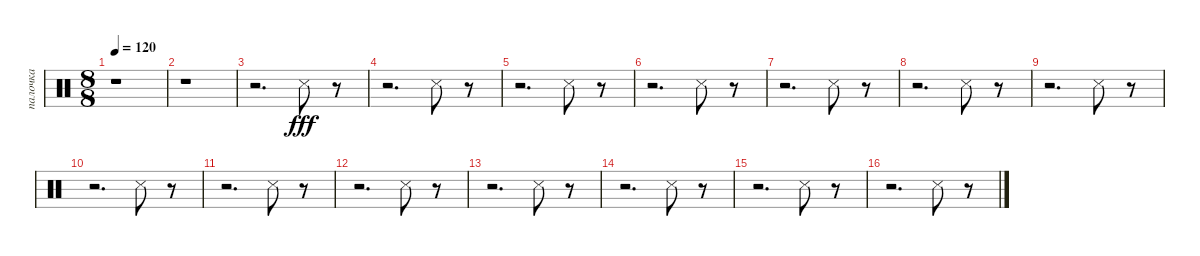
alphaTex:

\track ("палочка" "палочка") {instrument percussion}
\staff {score}
\articulation defaults
\ts (8 8)
\tempo 120
\clef neutral
\ks c
r.1{dy fff} |
r.1 |
r.2{d} "Snare (side stick) 3".8 r.8 |
r.2{d} "Snare (side stick) 3".8 r.8 |
r.2{d} "Snare (side stick) 3".8 r.8 |
r.2{d} "Snare (side stick) 3".8 r.8 |
r.2{d} "Snare (side stick) 3".8 r.8 |
r.2{d} "Snare (side stick) 3".8 r.8 |
r.2{d} "Snare (side stick) 3".8 r.8 |
r.2{d} "Snare (side stick) 3".8 r.8 |
r.2{d} "Snare (side stick) 3".8 r.8 |
r.2{d} "Snare (side stick) 3".8 r.8 |
r.2{d} "Snare (side stick) 3".8 r.8 |
r.2{d} "Snare (side stick) 3".8 r.8 |
r.2{d} "Snare (side stick) 3".8 r.8 |
r.2{d} "Snare (side stick) 3".8 r.8
